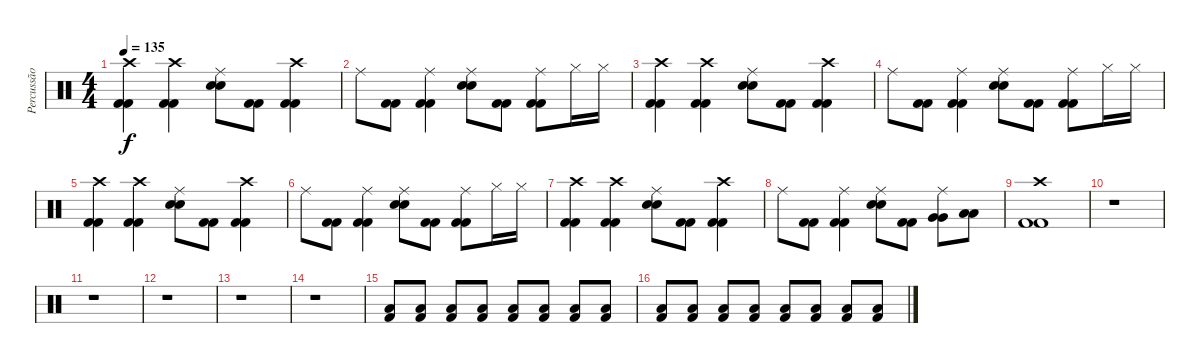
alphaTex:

\track ("Percussão" "Percussão") {instrument percussion}
\staff {score}
\articulation defaults
\ts (4 4)
\tempo 135
\clef neutral
\ks c
("Crash high (hit)" "Kick (hit) 2" "Kick (hit) 2").4{dy f} ("Crash high (hit)" "Kick (hit) 2" "Kick (hit) 2").4 ("Ride (middle)" "Electric Snare (hit)" "Electric Snare (hit)").8 ("Kick (hit) 2" "Kick (hit) 2").8 ("Crash high (hit)" "Kick (hit) 2" "Kick (hit) 2").4 |
"Ride (middle)".8 ("Kick (hit) 2" "Kick (hit) 2").8 ("Ride (middle)" "Kick (hit) 2" "Kick (hit) 2").4 ("Ride (middle)" "Electric Snare (hit)" "Electric Snare (hit)").8 ("Kick (hit) 2" "Kick (hit) 2").8 ("Ride (middle)" "Kick (hit) 2" "Kick (hit) 2").8 "Hi-Hat (closed)".16 "Hi-Hat (closed)".16 |
("Crash high (hit)" "Kick (hit) 2" "Kick (hit) 2").4 ("Crash high (hit)" "Kick (hit) 2" "Kick (hit) 2").4 ("Ride (middle)" "Electric Snare (hit)" "Electric Snare (hit)").8 ("Kick (hit) 2" "Kick (hit) 2").8 ("Crash high (hit)" "Kick (hit) 2" "Kick (hit) 2").4 |
"Ride (middle)".8 ("Kick (hit) 2" "Kick (hit) 2").8 ("Ride (middle)" "Kick (hit) 2" "Kick (hit) 2").4 ("Ride (middle)" "Electric Snare (hit)" "Electric Snare (hit)").8 ("Kick (hit) 2" "Kick (hit) 2").8 ("Ride (middle)" "Kick (hit) 2" "Kick (hit) 2").8 "Hi-Hat (closed)".16 "Hi-Hat (closed)".16 |
("Crash high (hit)" "Kick (hit) 2" "Kick (hit) 2").4 ("Crash high (hit)" "Kick (hit) 2" "Kick (hit) 2").4 ("Ride (middle)" "Electric Snare (hit)" "Electric Snare (hit)").8 ("Kick (hit) 2" "Kick (hit) 2").8 ("Crash high (hit)" "Kick (hit) 2" "Kick (hit) 2").4 |
"Ride (middle)".8 ("Kick (hit) 2" "Kick (hit) 2").8 ("Ride (middle)" "Kick (hit) 2" "Kick (hit) 2").4 ("Ride (middle)" "Electric Snare (hit)" "Electric Snare (hit)").8 ("Kick (hit) 2" "Kick (hit) 2").8 ("Ride (middle)" "Kick (hit) 2" "Kick (hit) 2").8 "Hi-Hat (closed)".16 "Hi-Hat (closed)".16 |
("Crash high (hit)" "Kick (hit) 2" "Kick (hit) 2").4 ("Crash high (hit)" "Kick (hit) 2" "Kick (hit) 2").4 ("Ride (middle)" "Electric Snare (hit)" "Electric Snare (hit)").8 ("Kick (hit) 2" "Kick (hit) 2").8 ("Crash high (hit)" "Kick (hit) 2" "Kick (hit) 2").4 |
"Ride (middle)".8 ("Kick (hit) 2" "Kick (hit) 2").8 ("Ride (middle)" "Kick (hit) 2" "Kick (hit) 2").4 ("Ride (middle)" "Electric Snare (hit)" "Electric Snare (hit)").8 ("Kick (hit) 2" "Kick (hit) 2").8 ("Ride (middle)" "Very Low Tom (hit)" "Very Low Tom (hit)").8 ("Low Tom (hit)" "Low Tom (hit)").8 |
("Crash high (hit)" "Kick (hit) 2" "Kick (hit) 2").1 |
r.1 |
r.1 |
r.1 |
r.1 |
r.1 |
("Low Tom (hit)" "Kick (hit) 2").8{volume 7} ("Low Tom (hit)" "Kick (hit) 2").8 ("Low Tom (hit)" "Kick (hit) 2").8{volume 8} ("Low Tom (hit)" "Kick (hit) 2").8 ("Low Tom (hit)" "Kick (hit) 2").8{volume 9} ("Low Tom (hit)" "Kick (hit) 2").8 ("Low Tom (hit)" "Kick (hit) 2").8{volume 10} ("Low Tom (hit)" "Kick (hit) 2").8 |
("Low Tom (hit)" "Kick (hit) 2").8{volume 13} ("Low Tom (hit)" "Kick (hit) 2").8 ("Low Tom (hit)" "Kick (hit) 2").8 ("Low Tom (hit)" "Kick (hit) 2").8 ("Low Tom (hit)" "Kick (hit) 2").8 ("Low Tom (hit)" "Kick (hit) 2").8 ("Low Tom (hit)" "Kick (hit) 2").8 ("Low Tom (hit)" "Kick (hit) 2").8
